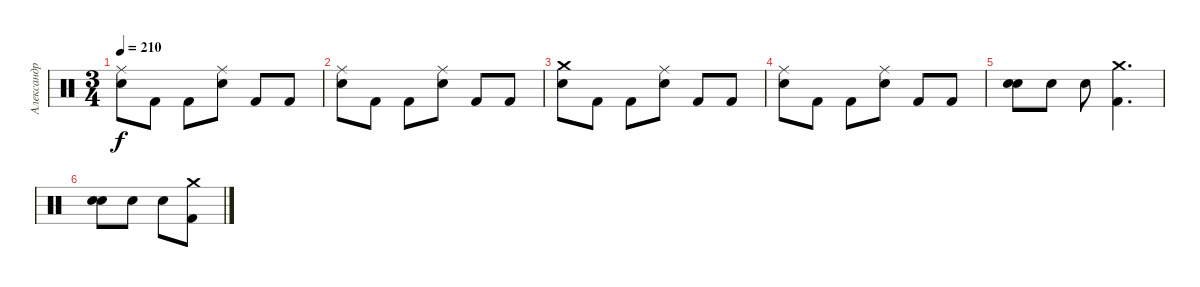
\track ("Александр Манякин" "Александр ") {instrument percussion}
\staff {score}
\articulation defaults
\ts (3 4)
\tempo 210
\clef neutral
\ks c
("Ride (middle)" "Snare (hit) 2").8{dy f} "Kick (hit) 2".8 "Kick (hit) 2".8 ("Ride (middle)" "Snare (hit) 2").8 "Kick (hit) 2".8 "Kick (hit) 2".8 |
("Ride (middle)" "Snare (hit) 2").8 "Kick (hit) 2".8 "Kick (hit) 2".8 ("Ride (middle)" "Snare (hit) 2").8 "Kick (hit) 2".8 "Kick (hit) 2".8 |
("Crash medium (hit)" "Snare (hit) 2").8 "Kick (hit) 2".8 "Kick (hit) 2".8 ("Ride (middle)" "Snare (hit) 2").8 "Kick (hit) 2".8 "Kick (hit) 2".8 |
("Ride (middle)" "Snare (hit) 2").8 "Kick (hit) 2".8 "Kick (hit) 2".8 ("Ride (middle)" "Snare (hit) 2").8 "Kick (hit) 2".8 "Kick (hit) 2".8 |
("Snare (hit) 2" "Snare (hit) 2").8{bd 60} "Snare (hit) 2".8 "Snare (hit) 2".8 ("Crash medium (hit)" "Kick (hit) 2").4{d} |
("Snare (hit) 2" "Snare (hit) 2").8{bd 60} "Snare (hit) 2".8 "Snare (hit) 2".8 ("Crash medium (hit)" "Kick (hit) 2").8
